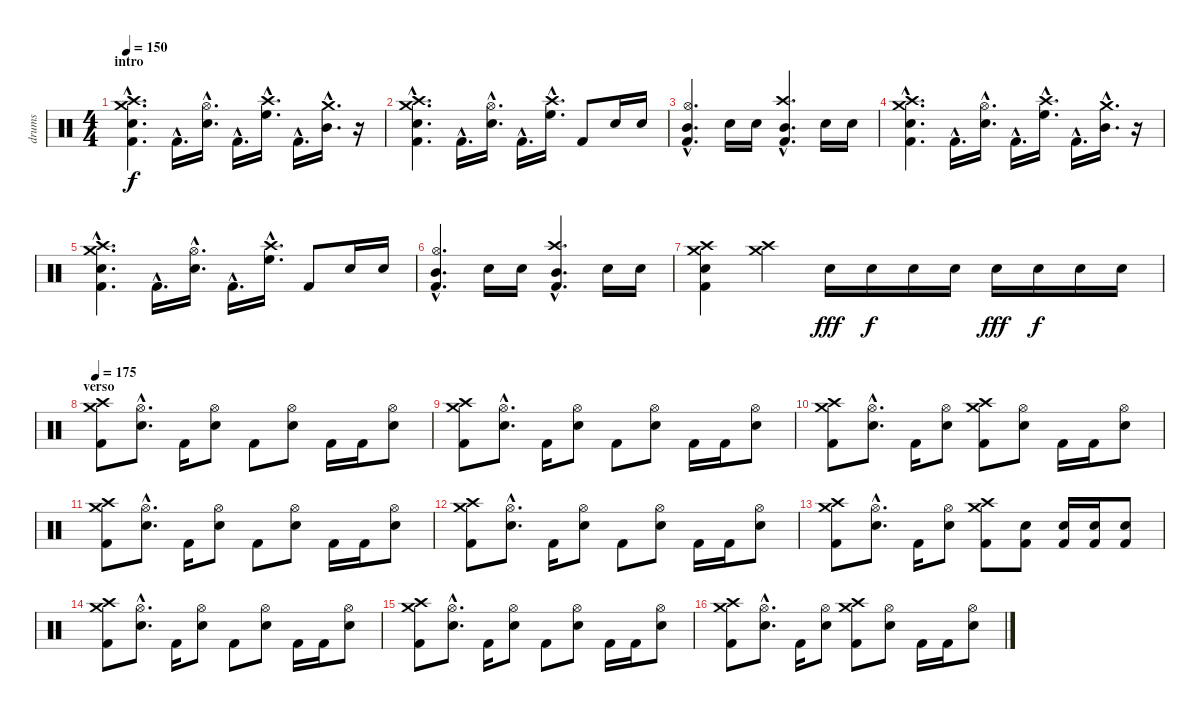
\track ("drums" "drums") {instrument percussion}
\staff {score}
\articulation defaults
\ts (4 4)
\section ("" "intro")
\tempo 150
\clef neutral
\ks c
("Kick (hit) 2"{hac} "Electric Snare (hit)"{hac} "Crash high (hit)"{hac} "Crash medium (hit)"{hac}).4{d dy f} "Kick (hit) 2"{hac}.16{d} ("Electric Snare (hit)"{hac} "Hi-Hat (open)"{hac}).16{d} "Kick (hit) 2"{hac}.16{d} ("High Floor Tom (hit)"{hac} "Crash high (hit)"{hac}).16{d} "Kick (hit) 2"{hac}.16{d} ("Mid Tom (hit)"{hac} "Crash medium (hit)"{hac}).16{d} r.16 |
("Kick (hit) 2"{hac} "Electric Snare (hit)"{hac} "Crash high (hit)"{hac} "Crash medium (hit)"{hac}).4{d} "Kick (hit) 2"{hac}.16{d} ("Electric Snare (hit)"{hac} "Hi-Hat (open)"{hac}).16{d} "Kick (hit) 2"{hac}.16{d} ("High Floor Tom (hit)"{hac} "Crash high (hit)"{hac}).16{d} "Kick (hit) 2".8 "Electric Snare (hit)".16 "Electric Snare (hit)".16 |
("Hi-Hat (open)"{hac} "Kick (hit) 2"{hac} "Mid Tom (hit)"{hac}).4{d} "Electric Snare (hit)".16 "Electric Snare (hit)".16 ("Crash high (hit)"{hac} "Kick (hit) 2"{hac} "Mid Tom (hit)"{hac}).4{d} "Electric Snare (hit)".16 "Electric Snare (hit)".16 |
("Kick (hit) 2"{hac} "Electric Snare (hit)"{hac} "Crash high (hit)"{hac} "Crash medium (hit)"{hac}).4{d} "Kick (hit) 2"{hac}.16{d} ("Electric Snare (hit)"{hac} "Hi-Hat (open)"{hac}).16{d} "Kick (hit) 2"{hac}.16{d} ("High Floor Tom (hit)"{hac} "Crash high (hit)"{hac}).16{d} "Kick (hit) 2"{hac}.16{d} ("Mid Tom (hit)"{hac} "Crash medium (hit)"{hac}).16{d} r.16 |
("Kick (hit) 2"{hac} "Electric Snare (hit)"{hac} "Crash high (hit)"{hac} "Crash medium (hit)"{hac}).4{d} "Kick (hit) 2"{hac}.16{d} ("Electric Snare (hit)"{hac} "Hi-Hat (open)"{hac}).16{d} "Kick (hit) 2"{hac}.16{d} ("High Floor Tom (hit)"{hac} "Crash high (hit)"{hac}).16{d} "Kick (hit) 2".8 "Electric Snare (hit)".16 "Electric Snare (hit)".16 |
("Hi-Hat (open)"{hac} "Kick (hit) 2"{hac} "Mid Tom (hit)"{hac}).4{d} "Electric Snare (hit)".16 "Electric Snare (hit)".16 ("Crash high (hit)"{hac} "Kick (hit) 2"{hac} "Mid Tom (hit)"{hac}).4{d} "Electric Snare (hit)".16 "Electric Snare (hit)".16 |
("Kick (hit) 2" "Electric Snare (hit)" "Crash high (hit)" "Crash medium (hit)").4 ("Crash high (hit)" "Crash medium (hit)").4 "Electric Snare (hit)".16{dy fff} "Electric Snare (hit)".16{dy f} "Electric Snare (hit)".16 "Electric Snare (hit)".16 "Electric Snare (hit)".16{dy fff} "Electric Snare (hit)".16{dy f} "Electric Snare (hit)".16 "Electric Snare (hit)".16 |
\section ("" "verso")
\tempo 175
("Kick (hit) 2" "Crash high (hit)" "Crash medium (hit)").8 ("Hi-Hat (open)"{hac} "Electric Snare (hit)"{hac}).8{d} "Kick (hit) 2".16 ("Hi-Hat (open)" "Electric Snare (hit)").8 "Kick (hit) 2".8 ("Hi-Hat (open)" "Electric Snare (hit)").8 "Kick (hit) 2".16 "Kick (hit) 2".16 ("Hi-Hat (open)" "Electric Snare (hit)").8 |
("Kick (hit) 2" "Crash high (hit)" "Crash medium (hit)").8 ("Hi-Hat (open)"{hac} "Electric Snare (hit)"{hac}).8{d} "Kick (hit) 2".16 ("Hi-Hat (open)" "Electric Snare (hit)").8 "Kick (hit) 2".8 ("Hi-Hat (open)" "Electric Snare (hit)").8 "Kick (hit) 2".16 "Kick (hit) 2".16 ("Hi-Hat (open)" "Electric Snare (hit)").8 |
("Kick (hit) 2" "Crash high (hit)" "Crash medium (hit)").8 ("Hi-Hat (open)"{hac} "Electric Snare (hit)"{hac}).8{d} "Kick (hit) 2".16 ("Hi-Hat (open)" "Electric Snare (hit)").8 ("Kick (hit) 2" "Crash medium (hit)" "Crash high (hit)").8 ("Hi-Hat (open)" "Electric Snare (hit)").8 "Kick (hit) 2".16 "Kick (hit) 2".16 ("Hi-Hat (open)" "Electric Snare (hit)").8 |
("Kick (hit) 2" "Crash high (hit)" "Crash medium (hit)").8 ("Hi-Hat (open)"{hac} "Electric Snare (hit)"{hac}).8{d} "Kick (hit) 2".16 ("Hi-Hat (open)" "Electric Snare (hit)").8 "Kick (hit) 2".8 ("Hi-Hat (open)" "Electric Snare (hit)").8 "Kick (hit) 2".16 "Kick (hit) 2".16 ("Hi-Hat (open)" "Electric Snare (hit)").8 |
("Kick (hit) 2" "Crash high (hit)" "Crash medium (hit)").8 ("Hi-Hat (open)"{hac} "Electric Snare (hit)"{hac}).8{d} "Kick (hit) 2".16 ("Hi-Hat (open)" "Electric Snare (hit)").8 "Kick (hit) 2".8 ("Hi-Hat (open)" "Electric Snare (hit)").8 "Kick (hit) 2".16 "Kick (hit) 2".16 ("Hi-Hat (open)" "Electric Snare (hit)").8 |
("Kick (hit) 2" "Crash high (hit)" "Crash medium (hit)").8 ("Hi-Hat (open)"{hac} "Electric Snare (hit)"{hac}).8{d} "Kick (hit) 2".16 ("Hi-Hat (open)" "Electric Snare (hit)").8 ("Kick (hit) 2" "Crash medium (hit)" "Crash high (hit)").8 ("Kick (hit) 2" "Electric Snare (hit)").8 ("Kick (hit) 2" "Electric Snare (hit)").16 ("Kick (hit) 2" "Electric Snare (hit)").16 ("Kick (hit) 2" "Electric Snare (hit)").8 |
("Kick (hit) 2" "Crash high (hit)" "Crash medium (hit)").8 ("Hi-Hat (open)"{hac} "Electric Snare (hit)"{hac}).8{d} "Kick (hit) 2".16 ("Hi-Hat (open)" "Electric Snare (hit)").8 "Kick (hit) 2".8 ("Hi-Hat (open)" "Electric Snare (hit)").8 "Kick (hit) 2".16 "Kick (hit) 2".16 ("Hi-Hat (open)" "Electric Snare (hit)").8 |
("Kick (hit) 2" "Crash high (hit)" "Crash medium (hit)").8 ("Hi-Hat (open)"{hac} "Electric Snare (hit)"{hac}).8{d} "Kick (hit) 2".16 ("Hi-Hat (open)" "Electric Snare (hit)").8 "Kick (hit) 2".8 ("Hi-Hat (open)" "Electric Snare (hit)").8 "Kick (hit) 2".16 "Kick (hit) 2".16 ("Hi-Hat (open)" "Electric Snare (hit)").8 |
("Kick (hit) 2" "Crash high (hit)" "Crash medium (hit)").8 ("Hi-Hat (open)"{hac} "Electric Snare (hit)"{hac}).8{d} "Kick (hit) 2".16 ("Hi-Hat (open)" "Electric Snare (hit)").8 ("Kick (hit) 2" "Crash medium (hit)" "Crash high (hit)").8 ("Hi-Hat (open)" "Electric Snare (hit)").8 "Kick (hit) 2".16 "Kick (hit) 2".16 ("Hi-Hat (open)" "Electric Snare (hit)").8
